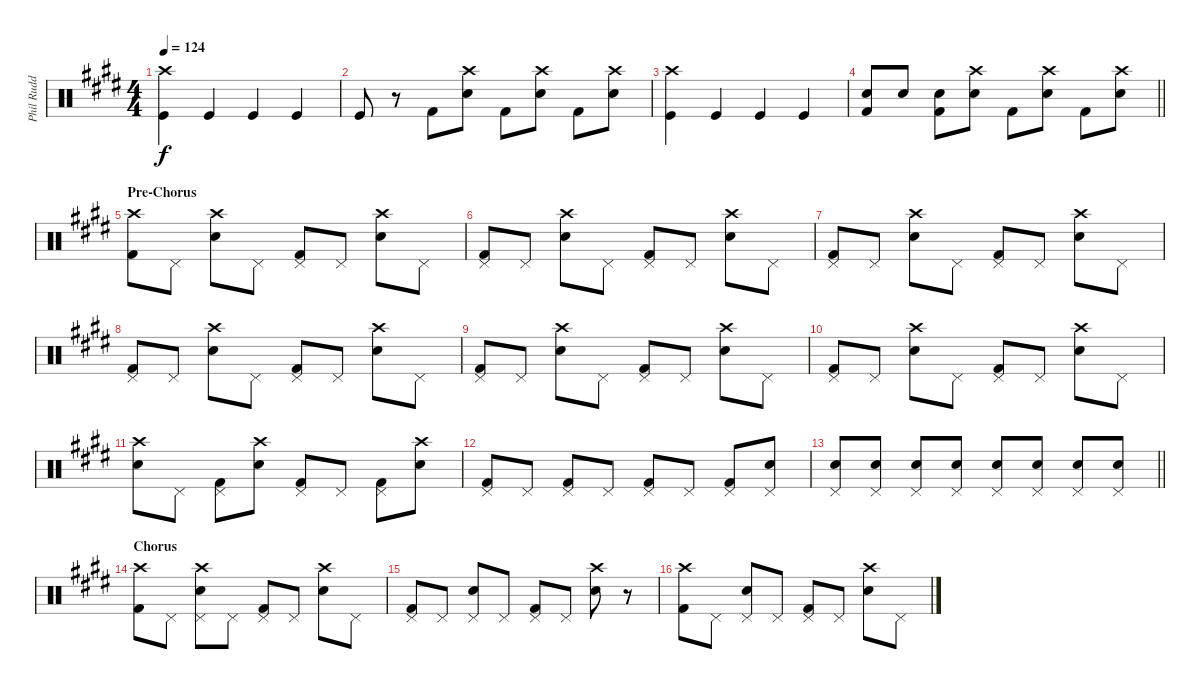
\track ("Phil Rudd (Drums)" "Phil Rudd ") {instrument percussion}
\staff {score}
\articulation defaults
\ts (4 4)
\tempo 124
\clef neutral
\ks e
("Crash high (hit)" "Kick (hit)").4{dy f} "Kick (hit)".4 "Kick (hit)".4 "Kick (hit)".4 |
"Kick (hit)".8 r.8 "Kick (hit) 2".8 ("Crash high (hit)" "Snare (hit) 2").8 "Kick (hit) 2".8 ("Crash high (hit)" "Snare (hit) 2").8 "Kick (hit) 2".8 ("Crash high (hit)" "Snare (hit) 2").8 |
("Crash high (hit)" "Kick (hit)").4 "Kick (hit)".4 "Kick (hit)".4 "Kick (hit)".4 |
\barLineRight lightlight
("Electric Snare (hit)" "Kick (hit) 2").8 "Snare (hit) 2".8 ("Snare (hit) 2" "Kick (hit) 2").8 ("Crash high (hit)" "Snare (hit) 2").8 "Kick (hit) 2".8 ("Crash high (hit)" "Snare (hit) 2").8 "Kick (hit) 2".8 ("Crash high (hit)" "Snare (hit) 2").8 |
\section ("" "Pre-Chorus")
("Crash high (hit)" "Kick (hit) 2").8 "Pedal Hi-Hat (hit)".8 ("Crash high (hit)" "Snare (hit) 2").8 "Pedal Hi-Hat (hit)".8 ("Pedal Hi-Hat (hit)" "Kick (hit) 2").8 "Pedal Hi-Hat (hit)".8 ("Crash high (hit)" "Snare (hit) 2").8 "Pedal Hi-Hat (hit)".8 |
("Pedal Hi-Hat (hit)" "Kick (hit) 2").8 "Pedal Hi-Hat (hit)".8 ("Crash high (hit)" "Snare (hit) 2").8 "Pedal Hi-Hat (hit)".8 ("Pedal Hi-Hat (hit)" "Kick (hit) 2").8 "Pedal Hi-Hat (hit)".8 ("Crash high (hit)" "Snare (hit) 2").8 "Pedal Hi-Hat (hit)".8 |
("Pedal Hi-Hat (hit)" "Kick (hit) 2").8 "Pedal Hi-Hat (hit)".8 ("Crash high (hit)" "Snare (hit) 2").8 "Pedal Hi-Hat (hit)".8 ("Pedal Hi-Hat (hit)" "Kick (hit) 2").8 "Pedal Hi-Hat (hit)".8 ("Crash high (hit)" "Snare (hit) 2").8 "Pedal Hi-Hat (hit)".8 |
("Pedal Hi-Hat (hit)" "Kick (hit) 2").8 "Pedal Hi-Hat (hit)".8 ("Crash high (hit)" "Snare (hit) 2").8 "Pedal Hi-Hat (hit)".8 ("Pedal Hi-Hat (hit)" "Kick (hit) 2").8 "Pedal Hi-Hat (hit)".8 ("Crash high (hit)" "Snare (hit) 2").8 "Pedal Hi-Hat (hit)".8 |
("Pedal Hi-Hat (hit)" "Kick (hit) 2").8 "Pedal Hi-Hat (hit)".8 ("Crash high (hit)" "Snare (hit) 2").8 "Pedal Hi-Hat (hit)".8 ("Pedal Hi-Hat (hit)" "Kick (hit) 2").8 "Pedal Hi-Hat (hit)".8 ("Crash high (hit)" "Snare (hit) 2").8 "Pedal Hi-Hat (hit)".8 |
("Pedal Hi-Hat (hit)" "Kick (hit) 2").8 "Pedal Hi-Hat (hit)".8 ("Crash high (hit)" "Snare (hit) 2").8 "Pedal Hi-Hat (hit)".8 ("Pedal Hi-Hat (hit)" "Kick (hit) 2").8 "Pedal Hi-Hat (hit)".8 ("Crash high (hit)" "Snare (hit) 2").8 "Pedal Hi-Hat (hit)".8 |
("Crash high (hit)" "Snare (hit) 2").8 "Pedal Hi-Hat (hit)".8 ("Pedal Hi-Hat (hit)" "Kick (hit) 2").8 ("Crash high (hit)" "Snare (hit) 2").8 ("Pedal Hi-Hat (hit)" "Kick (hit) 2").8 "Pedal Hi-Hat (hit)".8 ("Pedal Hi-Hat (hit)" "Kick (hit) 2").8 ("Crash high (hit)" "Snare (hit) 2").8 |
("Pedal Hi-Hat (hit)" "Kick (hit) 2").8 "Pedal Hi-Hat (hit)".8 ("Pedal Hi-Hat (hit)" "Kick (hit) 2").8 "Pedal Hi-Hat (hit)".8 ("Pedal Hi-Hat (hit)" "Kick (hit) 2").8 "Pedal Hi-Hat (hit)".8 ("Pedal Hi-Hat (hit)" "Kick (hit) 2").8 ("Pedal Hi-Hat (hit)" "Snare (hit) 2").8 |
\barLineRight lightlight
("Pedal Hi-Hat (hit)" "Snare (hit) 2").8 ("Pedal Hi-Hat (hit)" "Snare (hit) 2").8 ("Pedal Hi-Hat (hit)" "Snare (hit) 2").8 ("Pedal Hi-Hat (hit)" "Snare (hit) 2").8 ("Pedal Hi-Hat (hit)" "Snare (hit) 2").8 ("Pedal Hi-Hat (hit)" "Snare (hit) 2").8 ("Pedal Hi-Hat (hit)" "Snare (hit) 2").8 ("Pedal Hi-Hat (hit)" "Snare (hit) 2").8 |
\section ("" "Chorus")
("Crash high (hit)" "Kick (hit) 2").8 "Pedal Hi-Hat (hit)".8 ("Crash high (hit)" "Pedal Hi-Hat (hit)" "Snare (hit) 2").8 "Pedal Hi-Hat (hit)".8 ("Pedal Hi-Hat (hit)" "Kick (hit) 2").8 "Pedal Hi-Hat (hit)".8 ("Crash high (hit)" "Snare (hit) 2").8 "Pedal Hi-Hat (hit)".8 |
("Pedal Hi-Hat (hit)" "Kick (hit) 2").8 "Pedal Hi-Hat (hit)".8 ("Pedal Hi-Hat (hit)" "Snare (hit) 2").8 "Pedal Hi-Hat (hit)".8 ("Pedal Hi-Hat (hit)" "Kick (hit) 2").8 "Pedal Hi-Hat (hit)".8 ("Crash high (hit)" "Snare (hit) 2").8 r.8 |
("Crash high (hit)" "Kick (hit) 2").8 "Pedal Hi-Hat (hit)".8 ("Pedal Hi-Hat (hit)" "Snare (hit) 2").8 "Pedal Hi-Hat (hit)".8 ("Pedal Hi-Hat (hit)" "Kick (hit) 2").8 "Pedal Hi-Hat (hit)".8 ("Crash high (hit)" "Snare (hit) 2").8 "Pedal Hi-Hat (hit)".8
